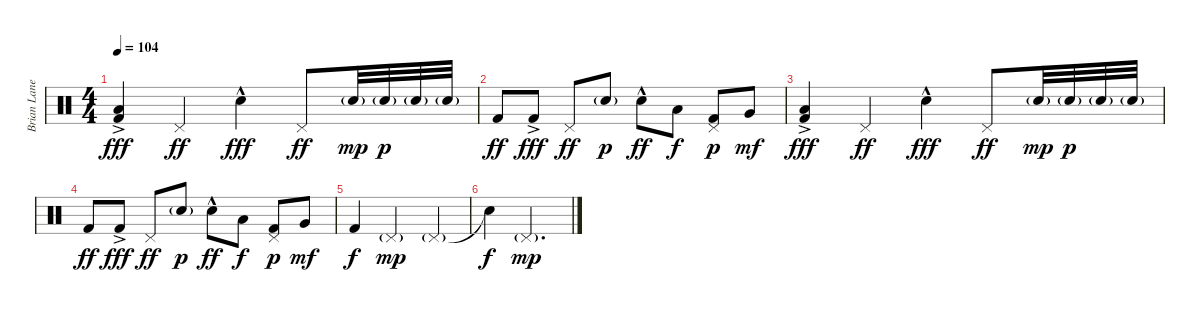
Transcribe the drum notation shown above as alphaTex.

\track ("Brian Lane - Drums" "Brian Lane") {instrument percussion}
\staff {score}
\articulation defaults
\ts (4 4)
\tempo 104
\clef neutral
\ks c
("Low Floor Tom (hit)" "Kick (hit) 2"{ac}).4{dy fff} "Pedal Hi-Hat (hit)".4{dy ff} "Snare (hit) 2"{hac}.4{dy fff} "Pedal Hi-Hat (hit)".8{dy ff} "Snare (hit) 2"{g}.32{dy mp} "Snare (hit) 2"{g}.32{dy p} "Snare (hit) 2"{g}.32 "Snare (hit) 2"{g}.32 |
"Kick (hit) 2".8{dy ff} "Kick (hit) 2"{ac}.8{dy fff} "Pedal Hi-Hat (hit)".8{dy ff} "Snare (hit) 2"{g}.8{dy p} "Snare (hit) 2"{hac}.8{dy ff} "Low Tom (hit)".8{dy f} ("Pedal Hi-Hat (hit)" "Kick (hit) 2").8{dy p} "Very Low Tom (hit)".8{dy mf} |
("Low Floor Tom (hit)" "Kick (hit) 2"{ac}).4{dy fff} "Pedal Hi-Hat (hit)".4{dy ff} "Snare (hit) 2"{hac}.4{dy fff} "Pedal Hi-Hat (hit)".8{dy ff} "Snare (hit) 2"{g}.32{dy mp} "Snare (hit) 2"{g}.32{dy p} "Snare (hit) 2"{g}.32 "Snare (hit) 2"{g}.32 |
"Kick (hit) 2".8{dy ff} "Kick (hit) 2"{ac}.8{dy fff} "Pedal Hi-Hat (hit)".8{dy ff} "Snare (hit) 2"{g}.8{dy p} "Snare (hit) 2"{hac}.8{dy ff} "Low Tom (hit)".8{dy f} ("Pedal Hi-Hat (hit)" "Kick (hit) 2").8{dy p} "Very Low Tom (hit)".8{dy mf} |
"Kick (hit) 2".4{dy f} "Pedal Hi-Hat (hit)"{g}.2{dy mp} "Pedal Hi-Hat (hit)"{g}.4 |
"Snare (hit)"{t}.4{dy f} "Pedal Hi-Hat (hit)"{g}.2{d dy mp}
